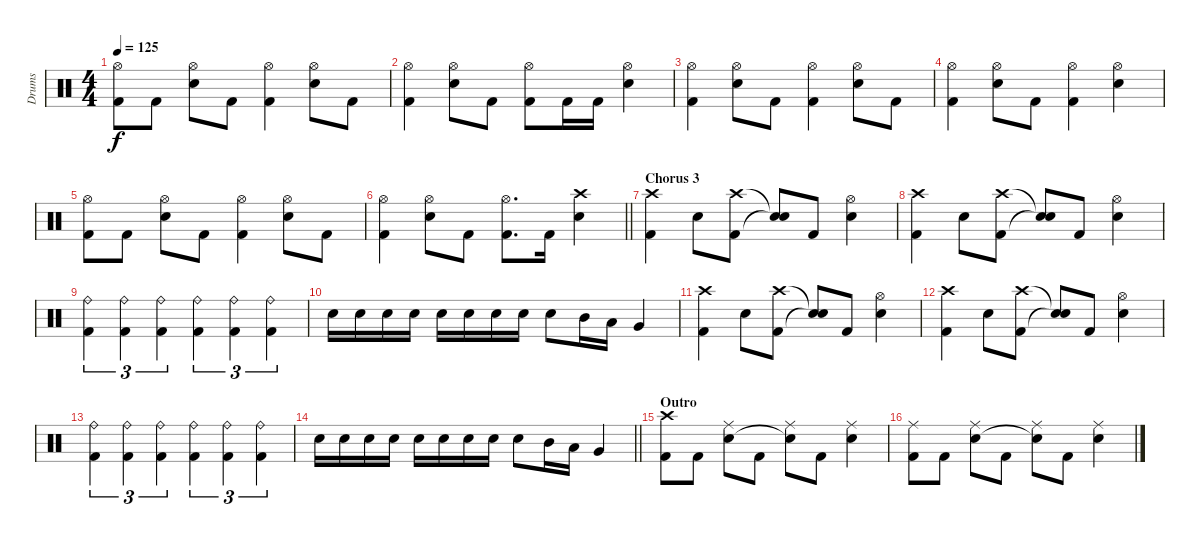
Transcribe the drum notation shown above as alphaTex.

\track ("Drums" "Drums") {instrument percussion}
\staff {score}
\articulation defaults
\ts (4 4)
\tempo 125
\clef neutral
\ks c
("Hi-Hat (open)" "Kick (hit) 2").8{dy f} "Kick (hit) 2".8 ("Hi-Hat (open)" "Snare (hit) 2").8 "Kick (hit) 2".8 ("Hi-Hat (open)" "Kick (hit) 2").4 ("Hi-Hat (open)" "Snare (hit) 2").8 "Kick (hit) 2".8 |
("Hi-Hat (open)" "Kick (hit) 2").4 ("Hi-Hat (open)" "Snare (hit) 2").8 "Kick (hit) 2".8 ("Hi-Hat (open)" "Kick (hit) 2").8 "Kick (hit) 2".16 "Kick (hit) 2".16 ("Hi-Hat (open)" "Snare (hit) 2").4 |
("Hi-Hat (open)" "Kick (hit) 2").4 ("Hi-Hat (open)" "Snare (hit) 2").8 "Kick (hit) 2".8 ("Hi-Hat (open)" "Kick (hit) 2").4 ("Hi-Hat (open)" "Snare (hit) 2").8 "Kick (hit) 2".8 |
("Hi-Hat (open)" "Kick (hit) 2").4 ("Hi-Hat (open)" "Snare (hit) 2").8 "Kick (hit) 2".8 ("Hi-Hat (open)" "Kick (hit) 2").4 ("Hi-Hat (open)" "Snare (hit) 2").4 |
("Hi-Hat (open)" "Kick (hit) 2").8 "Kick (hit) 2".8 ("Hi-Hat (open)" "Snare (hit) 2").8 "Kick (hit) 2".8 ("Hi-Hat (open)" "Kick (hit) 2").4 ("Hi-Hat (open)" "Snare (hit) 2").8 "Kick (hit) 2".8 |
\barLineRight lightlight
("Hi-Hat (open)" "Kick (hit) 2").4 ("Hi-Hat (open)" "Snare (hit) 2").8 "Kick (hit) 2".8 ("Hi-Hat (open)" "Kick (hit) 2").8{d} "Kick (hit) 2".16 ("Crash high (hit)" "Snare (hit) 2").4 |
\section ("" "Chorus 3")
("Crash high (hit)" "Kick (hit) 2").4 "Snare (hit) 2".8 ("Crash high (hit)" "Kick (hit) 2").8 ("Snare (hit)"{t} "Snare (hit)"{t}).8 "Kick (hit) 2".8 ("Hi-Hat (open)" "Snare (hit) 2").4 |
("Crash high (hit)" "Kick (hit) 2").4 "Snare (hit) 2".8 ("Crash high (hit)" "Kick (hit) 2").8 ("Snare (hit)"{t} "Snare (hit)"{t}).8 "Kick (hit) 2".8 ("Hi-Hat (open)" "Snare (hit) 2").4 |
("Ride (bell)" "Kick (hit) 2").4{tu (3 2)} ("Ride (bell)" "Kick (hit) 2").4{tu (3 2)} ("Ride (bell)" "Kick (hit) 2").4{tu (3 2)} ("Ride (bell)" "Kick (hit) 2").4{tu (3 2)} ("Ride (bell)" "Kick (hit) 2").4{tu (3 2)} ("Ride (bell)" "Kick (hit) 2").4{tu (3 2)} |
"Snare (hit) 2".16 "Snare (hit) 2".16 "Snare (hit) 2".16 "Snare (hit) 2".16 "Snare (hit) 2".16 "Snare (hit) 2".16 "Snare (hit) 2".16 "Snare (hit) 2".16 "Snare (hit) 2".8 "Mid Tom (hit)".16 "Low Tom (hit)".16 "Very Low Tom (hit)".4 |
("Crash high (hit)" "Kick (hit) 2").4 "Snare (hit) 2".8 ("Crash high (hit)" "Kick (hit) 2").8 ("Snare (hit)"{t} "Snare (hit)"{t}).8 "Kick (hit) 2".8 ("Hi-Hat (open)" "Snare (hit) 2").4 |
("Crash high (hit)" "Kick (hit) 2").4 "Snare (hit) 2".8 ("Crash high (hit)" "Kick (hit) 2").8 ("Snare (hit)"{t} "Snare (hit)"{t}).8 "Kick (hit) 2".8 ("Hi-Hat (open)" "Snare (hit) 2").4 |
("Ride (bell)" "Kick (hit) 2").4{tu (3 2)} ("Ride (bell)" "Kick (hit) 2").4{tu (3 2)} ("Ride (bell)" "Kick (hit) 2").4{tu (3 2)} ("Ride (bell)" "Kick (hit) 2").4{tu (3 2)} ("Ride (bell)" "Kick (hit) 2").4{tu (3 2)} ("Ride (bell)" "Kick (hit) 2").4{tu (3 2)} |
\barLineRight lightlight "Snare (hit) 2".16 "Snare (hit) 2".16 "Snare (hit) 2".16 "Snare (hit) 2".16 "Snare (hit) 2".16 "Snare (hit) 2".16 "Snare (hit) 2".16 "Snare (hit) 2".16 "Snare (hit) 2".8 "Mid Tom (hit)".16 "Low Tom (hit)".16 "Very Low Tom (hit)".4
|
\section ("" "Outro")
("Crash high (hit)" "Kick (hit) 2").8 "Kick (hit) 2".8 ("Ride (middle)" "Snare (hit) 2").8 "Kick (hit) 2".8 ("Ride (middle)" "Snare (hit)"{t}).8 "Kick (hit) 2".8 ("Ride (middle)" "Snare (hit) 2").4 |
("Ride (middle)" "Kick (hit) 2").8 "Kick (hit) 2".8 ("Ride (middle)" "Snare (hit) 2").8 "Kick (hit) 2".8 ("Ride (middle)" "Snare (hit)"{t}).8 "Kick (hit) 2".8 ("Ride (middle)" "Snare (hit) 2").4
